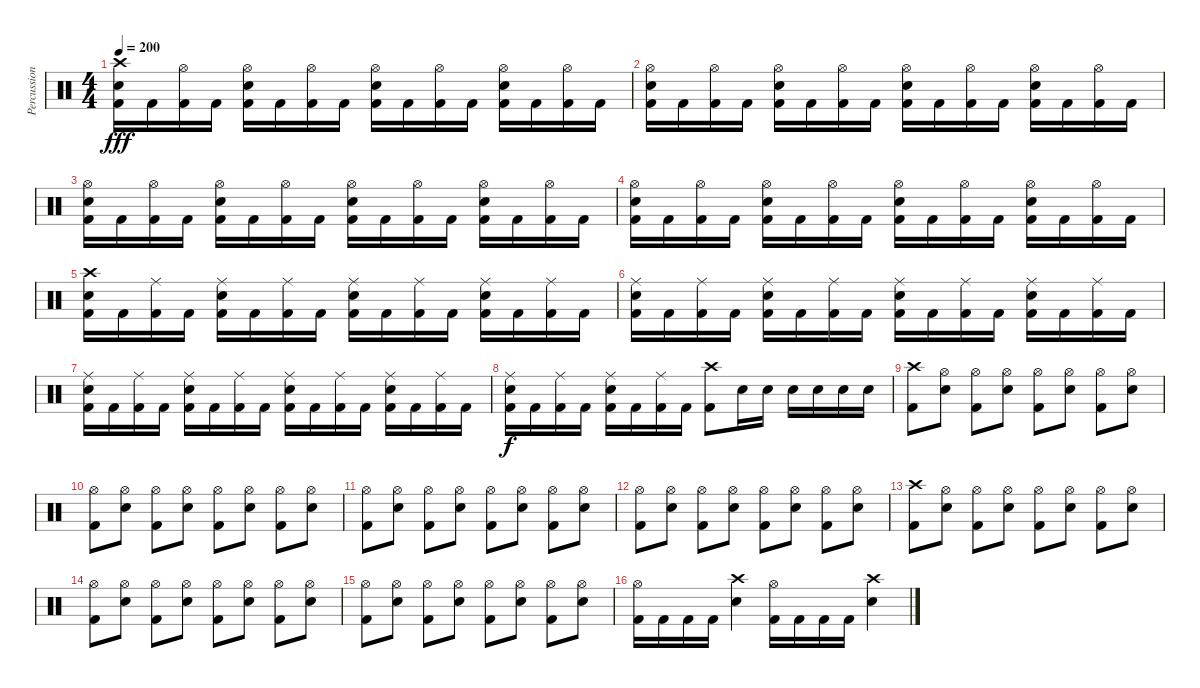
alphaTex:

\track ("Percussions" "Percussion") {instrument percussion}
\staff {score}
\articulation defaults
\ts (4 4)
\tempo 200
\clef neutral
\ks c
("Crash high (hit)" "Electric Snare (hit)" "Kick (hit) 2").16{dy fff} "Kick (hit) 2".16 ("Hi-Hat (open)" "Kick (hit) 2").16 "Kick (hit) 2".16 ("Hi-Hat (open)" "Electric Snare (hit)" "Kick (hit) 2").16 "Kick (hit) 2".16 ("Hi-Hat (open)" "Kick (hit) 2").16 "Kick (hit) 2".16 ("Hi-Hat (open)" "Electric Snare (hit)" "Kick (hit) 2").16 "Kick (hit) 2".16 ("Hi-Hat (open)" "Kick (hit) 2").16 "Kick (hit) 2".16 ("Hi-Hat (open)" "Electric Snare (hit)" "Kick (hit) 2").16 "Kick (hit) 2".16 ("Hi-Hat (open)" "Kick (hit) 2").16 "Kick (hit) 2".16 |
("Hi-Hat (open)" "Electric Snare (hit)" "Kick (hit) 2").16 "Kick (hit) 2".16 ("Hi-Hat (open)" "Kick (hit) 2").16 "Kick (hit) 2".16 ("Hi-Hat (open)" "Electric Snare (hit)" "Kick (hit) 2").16 "Kick (hit) 2".16 ("Hi-Hat (open)" "Kick (hit) 2").16 "Kick (hit) 2".16 ("Hi-Hat (open)" "Electric Snare (hit)" "Kick (hit) 2").16 "Kick (hit) 2".16 ("Hi-Hat (open)" "Kick (hit) 2").16 "Kick (hit) 2".16 ("Hi-Hat (open)" "Electric Snare (hit)" "Kick (hit) 2").16 "Kick (hit) 2".16 ("Hi-Hat (open)" "Kick (hit) 2").16 "Kick (hit) 2".16 |
("Hi-Hat (open)" "Electric Snare (hit)" "Kick (hit) 2").16 "Kick (hit) 2".16 ("Hi-Hat (open)" "Kick (hit) 2").16 "Kick (hit) 2".16 ("Hi-Hat (open)" "Electric Snare (hit)" "Kick (hit) 2").16 "Kick (hit) 2".16 ("Hi-Hat (open)" "Kick (hit) 2").16 "Kick (hit) 2".16 ("Hi-Hat (open)" "Electric Snare (hit)" "Kick (hit) 2").16 "Kick (hit) 2".16 ("Hi-Hat (open)" "Kick (hit) 2").16 "Kick (hit) 2".16 ("Hi-Hat (open)" "Electric Snare (hit)" "Kick (hit) 2").16 "Kick (hit) 2".16 ("Hi-Hat (open)" "Kick (hit) 2").16 "Kick (hit) 2".16 |
("Hi-Hat (open)" "Electric Snare (hit)" "Kick (hit) 2").16 "Kick (hit) 2".16 ("Hi-Hat (open)" "Kick (hit) 2").16 "Kick (hit) 2".16 ("Hi-Hat (open)" "Electric Snare (hit)" "Kick (hit) 2").16 "Kick (hit) 2".16 ("Hi-Hat (open)" "Kick (hit) 2").16 "Kick (hit) 2".16 ("Hi-Hat (open)" "Electric Snare (hit)" "Kick (hit) 2").16 "Kick (hit) 2".16 ("Hi-Hat (open)" "Kick (hit) 2").16 "Kick (hit) 2".16 ("Hi-Hat (open)" "Electric Snare (hit)" "Kick (hit) 2").16 "Kick (hit) 2".16 ("Hi-Hat (open)" "Kick (hit) 2").16 "Kick (hit) 2".16 |
("Crash high (hit)" "Electric Snare (hit)" "Kick (hit) 2").16 "Kick (hit) 2".16 ("Ride (middle)" "Kick (hit) 2").16 "Kick (hit) 2".16 ("Ride (middle)" "Electric Snare (hit)" "Kick (hit) 2").16 "Kick (hit) 2".16 ("Ride (middle)" "Kick (hit) 2").16 "Kick (hit) 2".16 ("Ride (middle)" "Electric Snare (hit)" "Kick (hit) 2").16 "Kick (hit) 2".16 ("Ride (middle)" "Kick (hit) 2").16 "Kick (hit) 2".16 ("Ride (middle)" "Electric Snare (hit)" "Kick (hit) 2").16 "Kick (hit) 2".16 ("Ride (middle)" "Kick (hit) 2").16 "Kick (hit) 2".16 |
("Ride (middle)" "Electric Snare (hit)" "Kick (hit) 2").16 "Kick (hit) 2".16 ("Ride (middle)" "Kick (hit) 2").16 "Kick (hit) 2".16 ("Ride (middle)" "Electric Snare (hit)" "Kick (hit) 2").16 "Kick (hit) 2".16 ("Ride (middle)" "Kick (hit) 2").16 "Kick (hit) 2".16 ("Ride (middle)" "Electric Snare (hit)" "Kick (hit) 2").16 "Kick (hit) 2".16 ("Ride (middle)" "Kick (hit) 2").16 "Kick (hit) 2".16 ("Ride (middle)" "Electric Snare (hit)" "Kick (hit) 2").16 "Kick (hit) 2".16 ("Ride (middle)" "Kick (hit) 2").16 "Kick (hit) 2".16 |
("Ride (middle)" "Electric Snare (hit)" "Kick (hit) 2").16 "Kick (hit) 2".16 ("Ride (middle)" "Kick (hit) 2").16 "Kick (hit) 2".16 ("Ride (middle)" "Electric Snare (hit)" "Kick (hit) 2").16 "Kick (hit) 2".16 ("Ride (middle)" "Kick (hit) 2").16 "Kick (hit) 2".16 ("Ride (middle)" "Electric Snare (hit)" "Kick (hit) 2").16 "Kick (hit) 2".16 ("Ride (middle)" "Kick (hit) 2").16 "Kick (hit) 2".16 ("Ride (middle)" "Electric Snare (hit)" "Kick (hit) 2").16 "Kick (hit) 2".16 ("Ride (middle)" "Kick (hit) 2").16 "Kick (hit) 2".16 |
("Ride (middle)" "Electric Snare (hit)" "Kick (hit) 2").16{dy f} "Kick (hit) 2".16 ("Ride (middle)" "Kick (hit) 2").16 "Kick (hit) 2".16 ("Ride (middle)" "Electric Snare (hit)" "Kick (hit) 2").16 "Kick (hit) 2".16 ("Ride (middle)" "Kick (hit) 2").16 "Kick (hit) 2".16 ("Crash high (hit)" "Kick (hit) 2").8 "Electric Snare (hit)".16 "Electric Snare (hit)".16 "Electric Snare (hit)".16 "Electric Snare (hit)".16 "Electric Snare (hit)".16 "Electric Snare (hit)".16 |
("Crash high (hit)" "Kick (hit) 2").8 ("Hi-Hat (open)" "Electric Snare (hit)").8 ("Hi-Hat (open)" "Kick (hit) 2").8 ("Hi-Hat (open)" "Electric Snare (hit)").8 ("Hi-Hat (open)" "Kick (hit) 2").8 ("Hi-Hat (open)" "Electric Snare (hit)").8 ("Hi-Hat (open)" "Kick (hit) 2").8 ("Hi-Hat (open)" "Electric Snare (hit)").8 |
("Hi-Hat (open)" "Kick (hit) 2").8 ("Hi-Hat (open)" "Electric Snare (hit)").8 ("Hi-Hat (open)" "Kick (hit) 2").8 ("Hi-Hat (open)" "Electric Snare (hit)").8 ("Hi-Hat (open)" "Kick (hit) 2").8 ("Hi-Hat (open)" "Electric Snare (hit)").8 ("Hi-Hat (open)" "Kick (hit) 2").8 ("Hi-Hat (open)" "Electric Snare (hit)").8 |
("Hi-Hat (open)" "Kick (hit) 2").8 ("Hi-Hat (open)" "Electric Snare (hit)").8 ("Hi-Hat (open)" "Kick (hit) 2").8 ("Hi-Hat (open)" "Electric Snare (hit)").8 ("Hi-Hat (open)" "Kick (hit) 2").8 ("Hi-Hat (open)" "Electric Snare (hit)").8 ("Hi-Hat (open)" "Kick (hit) 2").8 ("Hi-Hat (open)" "Electric Snare (hit)").8 |
("Hi-Hat (open)" "Kick (hit) 2").8 ("Hi-Hat (open)" "Electric Snare (hit)").8 ("Hi-Hat (open)" "Kick (hit) 2").8 ("Hi-Hat (open)" "Electric Snare (hit)").8 ("Hi-Hat (open)" "Kick (hit) 2").8 ("Hi-Hat (open)" "Electric Snare (hit)").8 ("Hi-Hat (open)" "Kick (hit) 2").8 ("Hi-Hat (open)" "Electric Snare (hit)").8 |
("Crash high (hit)" "Kick (hit) 2").8 ("Hi-Hat (open)" "Electric Snare (hit)").8 ("Hi-Hat (open)" "Kick (hit) 2").8 ("Hi-Hat (open)" "Electric Snare (hit)").8 ("Hi-Hat (open)" "Kick (hit) 2").8 ("Hi-Hat (open)" "Electric Snare (hit)").8 ("Hi-Hat (open)" "Kick (hit) 2").8 ("Hi-Hat (open)" "Electric Snare (hit)").8 |
("Hi-Hat (open)" "Kick (hit) 2").8 ("Hi-Hat (open)" "Electric Snare (hit)").8 ("Hi-Hat (open)" "Kick (hit) 2").8 ("Hi-Hat (open)" "Electric Snare (hit)").8 ("Hi-Hat (open)" "Kick (hit) 2").8 ("Hi-Hat (open)" "Electric Snare (hit)").8 ("Hi-Hat (open)" "Kick (hit) 2").8 ("Hi-Hat (open)" "Electric Snare (hit)").8 |
("Hi-Hat (open)" "Kick (hit) 2").8 ("Hi-Hat (open)" "Electric Snare (hit)").8 ("Hi-Hat (open)" "Kick (hit) 2").8 ("Hi-Hat (open)" "Electric Snare (hit)").8 ("Hi-Hat (open)" "Kick (hit) 2").8 ("Hi-Hat (open)" "Electric Snare (hit)").8 ("Hi-Hat (open)" "Kick (hit) 2").8 ("Hi-Hat (open)" "Electric Snare (hit)").8 |
("Hi-Hat (open)" "Kick (hit) 2").16 "Kick (hit) 2".16 "Kick (hit) 2".16 "Kick (hit) 2".16 ("Crash high (hit)" "Electric Snare (hit)").4 ("Hi-Hat (open)" "Kick (hit) 2").16 "Kick (hit) 2".16 "Kick (hit) 2".16 "Kick (hit) 2".16 ("Crash high (hit)" "Electric Snare (hit)").4
